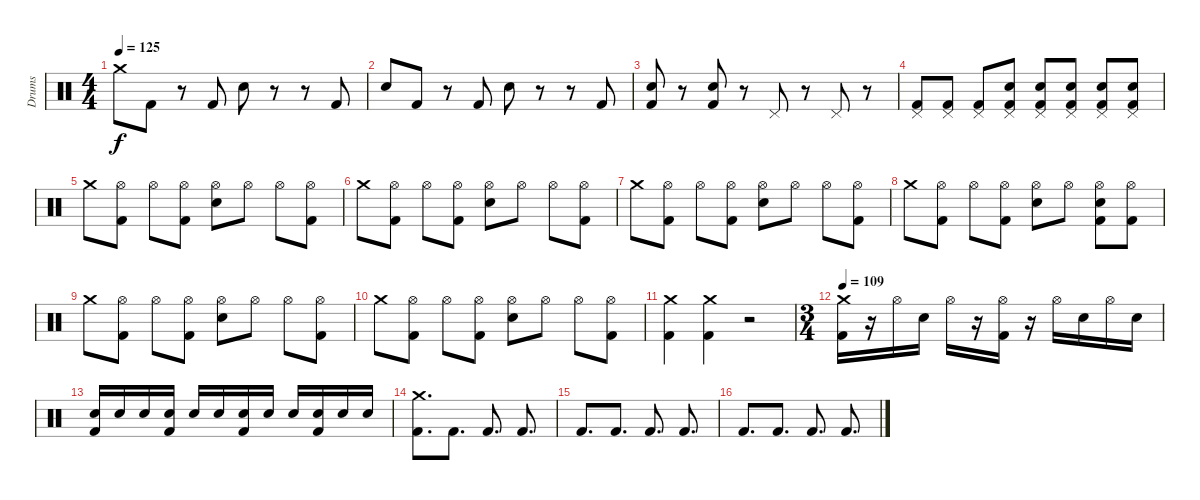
\track ("Drums" "Drums") {instrument percussion}
\staff {score}
\articulation defaults
\ts (4 4)
\tempo 125
\clef neutral
\ks c "Crash medium (hit)".8{dy f} "Kick (hit) 2".8
r.8 "Kick (hit) 2".8 "Electric Snare (hit)".8 r.8 r.8 "Kick (hit) 2".8 |
"Electric Snare (hit)".8 "Kick (hit) 2".8 r.8 "Kick (hit) 2".8 "Electric Snare (hit)".8 r.8 r.8 "Kick (hit) 2".8 |
("Electric Snare (hit)" "Kick (hit) 2").8 r.8 ("Electric Snare (hit)" "Kick (hit) 2").8 r.8 "Pedal Hi-Hat (hit)".8 r.8 "Pedal Hi-Hat (hit)".8 r.8 |
("Pedal Hi-Hat (hit)" "Kick (hit) 2").8 ("Pedal Hi-Hat (hit)" "Kick (hit) 2").8 ("Pedal Hi-Hat (hit)" "Kick (hit) 2").8 ("Pedal Hi-Hat (hit)" "Electric Snare (hit)" "Kick (hit) 2").8 ("Pedal Hi-Hat (hit)" "Electric Snare (hit)" "Kick (hit) 2").8 ("Pedal Hi-Hat (hit)" "Electric Snare (hit)" "Kick (hit) 2").8 ("Pedal Hi-Hat (hit)" "Electric Snare (hit)" "Kick (hit) 2").8 ("Pedal Hi-Hat (hit)" "Electric Snare (hit)" "Kick (hit) 2").8 |
"Crash medium (hit)".8 ("Hi-Hat (open)" "Kick (hit) 2").8 "Hi-Hat (open)".8 ("Hi-Hat (open)" "Kick (hit) 2").8 ("Hi-Hat (open)" "Electric Snare (hit)").8 "Hi-Hat (open)".8 "Hi-Hat (open)".8 ("Hi-Hat (open)" "Kick (hit) 2").8 |
"Crash medium (hit)".8 ("Hi-Hat (open)" "Kick (hit) 2").8 "Hi-Hat (open)".8 ("Hi-Hat (open)" "Kick (hit) 2").8 ("Hi-Hat (open)" "Electric Snare (hit)").8 "Hi-Hat (open)".8 "Hi-Hat (open)".8 ("Hi-Hat (open)" "Kick (hit) 2").8 |
"Crash medium (hit)".8 ("Hi-Hat (open)" "Kick (hit) 2").8 "Hi-Hat (open)".8 ("Hi-Hat (open)" "Kick (hit) 2").8 ("Hi-Hat (open)" "Electric Snare (hit)").8 "Hi-Hat (open)".8 "Hi-Hat (open)".8 ("Hi-Hat (open)" "Kick (hit) 2").8 |
"Crash medium (hit)".8 ("Hi-Hat (open)" "Kick (hit) 2").8 "Hi-Hat (open)".8 ("Hi-Hat (open)" "Kick (hit) 2").8 ("Hi-Hat (open)" "Electric Snare (hit)").8 "Hi-Hat (open)".8 ("Hi-Hat (open)" "Electric Snare (hit)" "Kick (hit) 2").8 ("Hi-Hat (open)" "Kick (hit) 2").8 |
"Crash medium (hit)".8 ("Hi-Hat (open)" "Kick (hit) 2").8 "Hi-Hat (open)".8 ("Hi-Hat (open)" "Kick (hit) 2").8 ("Hi-Hat (open)" "Electric Snare (hit)").8 "Hi-Hat (open)".8 "Hi-Hat (open)".8 ("Hi-Hat (open)" "Kick (hit) 2").8 |
"Crash medium (hit)".8 ("Hi-Hat (open)" "Kick (hit) 2").8 "Hi-Hat (open)".8 ("Hi-Hat (open)" "Kick (hit) 2").8 ("Hi-Hat (open)" "Electric Snare (hit)").8 "Hi-Hat (open)".8 "Hi-Hat (open)".8 ("Hi-Hat (open)" "Kick (hit) 2").8 |
("Crash medium (hit)" "Kick (hit) 2").4 ("Crash medium (hit)" "Kick (hit) 2").4 r.2 |
\ts (3 4)
\tempo 109
("Crash medium (hit)" "Kick (hit) 2").16 r.16 "Hi-Hat (open)".16 "Electric Snare (hit)".16 "Hi-Hat (open)".16 r.16 ("Hi-Hat (open)" "Kick (hit) 2").16 r.16 "Hi-Hat (open)".16 "Electric Snare (hit)".16 "Hi-Hat (open)".16 "Electric Snare (hit)".16 |
("Electric Snare (hit)" "Kick (hit) 2").16 "Electric Snare (hit)".16 "Electric Snare (hit)".16 ("Electric Snare (hit)" "Kick (hit) 2").16 "Electric Snare (hit)".16 "Electric Snare (hit)".16 ("Electric Snare (hit)" "Kick (hit) 2").16 "Electric Snare (hit)".16 "Electric Snare (hit)".16 ("Electric Snare (hit)" "Kick (hit) 2").16 "Electric Snare (hit)".16 "Electric Snare (hit)".16 |
("Crash medium (hit)" "Kick (hit) 2").8{d} "Kick (hit) 2".8{d} "Kick (hit) 2".8{d} "Kick (hit) 2".8{d} |
"Kick (hit) 2".8{d} "Kick (hit) 2".8{d} "Kick (hit) 2".8{d} "Kick (hit) 2".8{d} |
"Kick (hit) 2".8{d} "Kick (hit) 2".8{d} "Kick (hit) 2".8{d} "Kick (hit) 2".8{d}
